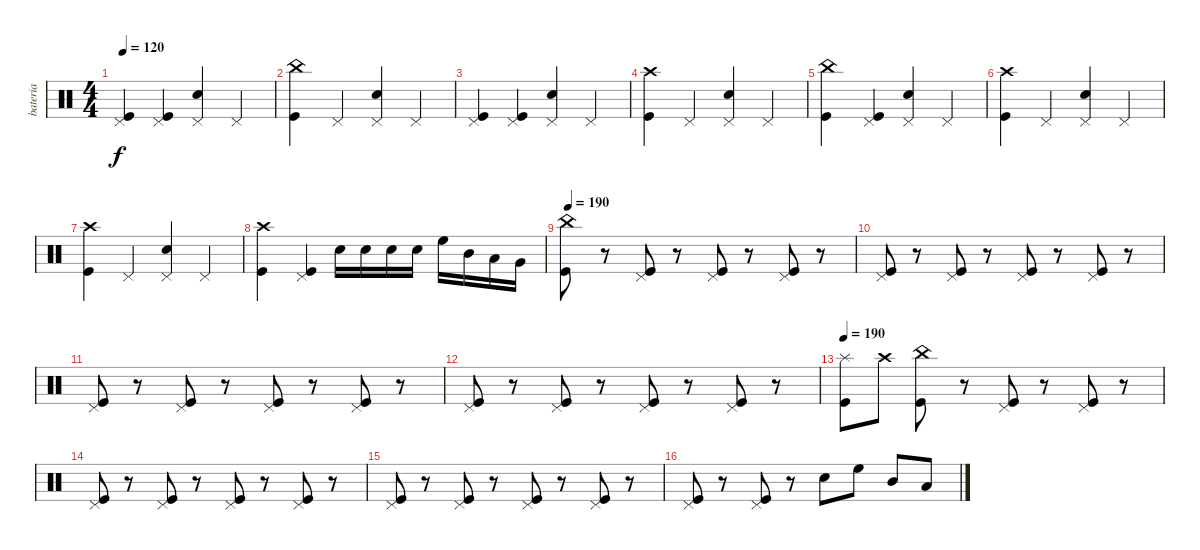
\track ("bateria" "bateria") {instrument percussion}
\staff {score}
\articulation defaults
\ts (4 4)
\tempo 120
\clef neutral
\ks c
("Pedal Hi-Hat (hit)" "Kick (hit)").4{dy f} ("Pedal Hi-Hat (hit)" "Kick (hit)").4 ("Pedal Hi-Hat (hit)" "Snare (hit) 2").4 "Pedal Hi-Hat (hit)".4 |
("China (hit)" "Kick (hit)").4 "Pedal Hi-Hat (hit)".4 ("Pedal Hi-Hat (hit)" "Snare (hit) 2").4 "Pedal Hi-Hat (hit)".4 |
("Pedal Hi-Hat (hit)" "Kick (hit)").4 ("Pedal Hi-Hat (hit)" "Kick (hit)").4 ("Pedal Hi-Hat (hit)" "Snare (hit) 2").4 "Pedal Hi-Hat (hit)".4 |
("Crash high (hit)" "Kick (hit)").4 "Pedal Hi-Hat (hit)".4 ("Pedal Hi-Hat (hit)" "Snare (hit) 2").4 "Pedal Hi-Hat (hit)".4 |
("China (hit)" "Kick (hit)").4 ("Pedal Hi-Hat (hit)" "Kick (hit)").4 ("Pedal Hi-Hat (hit)" "Snare (hit) 2").4 "Pedal Hi-Hat (hit)".4 |
("Crash high (hit)" "Kick (hit)").4 "Pedal Hi-Hat (hit)".4 ("Pedal Hi-Hat (hit)" "Snare (hit) 2").4 "Pedal Hi-Hat (hit)".4 |
("Crash high (hit)" "Kick (hit)").4 "Pedal Hi-Hat (hit)".4 ("Pedal Hi-Hat (hit)" "Snare (hit) 2").4 "Pedal Hi-Hat (hit)".4 |
("Crash high (hit)" "Kick (hit)").4 ("Pedal Hi-Hat (hit)" "Kick (hit)").4 "Electric Snare (hit)".16 "Electric Snare (hit)".16 "Electric Snare (hit)".16 "Electric Snare (hit)".16 "High Floor Tom (hit)".16 "Mid Tom (hit)".16 "Low Tom (hit)".16 "Very Low Tom (hit)".16 |
\tempo 190
("China (hit)" "Kick (hit)").8 r.8 ("Pedal Hi-Hat (hit)" "Kick (hit)").8 r.8 ("Pedal Hi-Hat (hit)" "Kick (hit)").8 r.8 ("Pedal Hi-Hat (hit)" "Kick (hit)").8 r.8 |
("Pedal Hi-Hat (hit)" "Kick (hit)").8 r.8 ("Pedal Hi-Hat (hit)" "Kick (hit)").8 r.8 ("Pedal Hi-Hat (hit)" "Kick (hit)").8 r.8 ("Pedal Hi-Hat (hit)" "Kick (hit)").8 r.8 |
("Pedal Hi-Hat (hit)" "Kick (hit)").8 r.8 ("Pedal Hi-Hat (hit)" "Kick (hit)").8 r.8 ("Pedal Hi-Hat (hit)" "Kick (hit)").8 r.8 ("Pedal Hi-Hat (hit)" "Kick (hit)").8 r.8 |
("Pedal Hi-Hat (hit)" "Kick (hit)").8 r.8 ("Pedal Hi-Hat (hit)" "Kick (hit)").8 r.8 ("Pedal Hi-Hat (hit)" "Kick (hit)").8 r.8 ("Pedal Hi-Hat (hit)" "Kick (hit)").8 r.8 |
\tempo 190
("Splash (hit)" "Kick (hit)").8 "Crash high (hit)".8 ("China (hit)" "Kick (hit)").8 r.8 ("Pedal Hi-Hat (hit)" "Kick (hit)").8 r.8 ("Pedal Hi-Hat (hit)" "Kick (hit)").8 r.8 |
("Pedal Hi-Hat (hit)" "Kick (hit)").8 r.8 ("Pedal Hi-Hat (hit)" "Kick (hit)").8 r.8 ("Pedal Hi-Hat (hit)" "Kick (hit)").8 r.8 ("Pedal Hi-Hat (hit)" "Kick (hit)").8 r.8 |
("Pedal Hi-Hat (hit)" "Kick (hit)").8 r.8 ("Pedal Hi-Hat (hit)" "Kick (hit)").8 r.8 ("Pedal Hi-Hat (hit)" "Kick (hit)").8 r.8 ("Pedal Hi-Hat (hit)" "Kick (hit)").8 r.8 |
("Pedal Hi-Hat (hit)" "Kick (hit)").8 r.8 ("Pedal Hi-Hat (hit)" "Kick (hit)").8 r.8 "Snare (hit) 2".8 "High Floor Tom (hit)".8 "Mid Tom (hit)".8 "Low Tom (hit)".8
